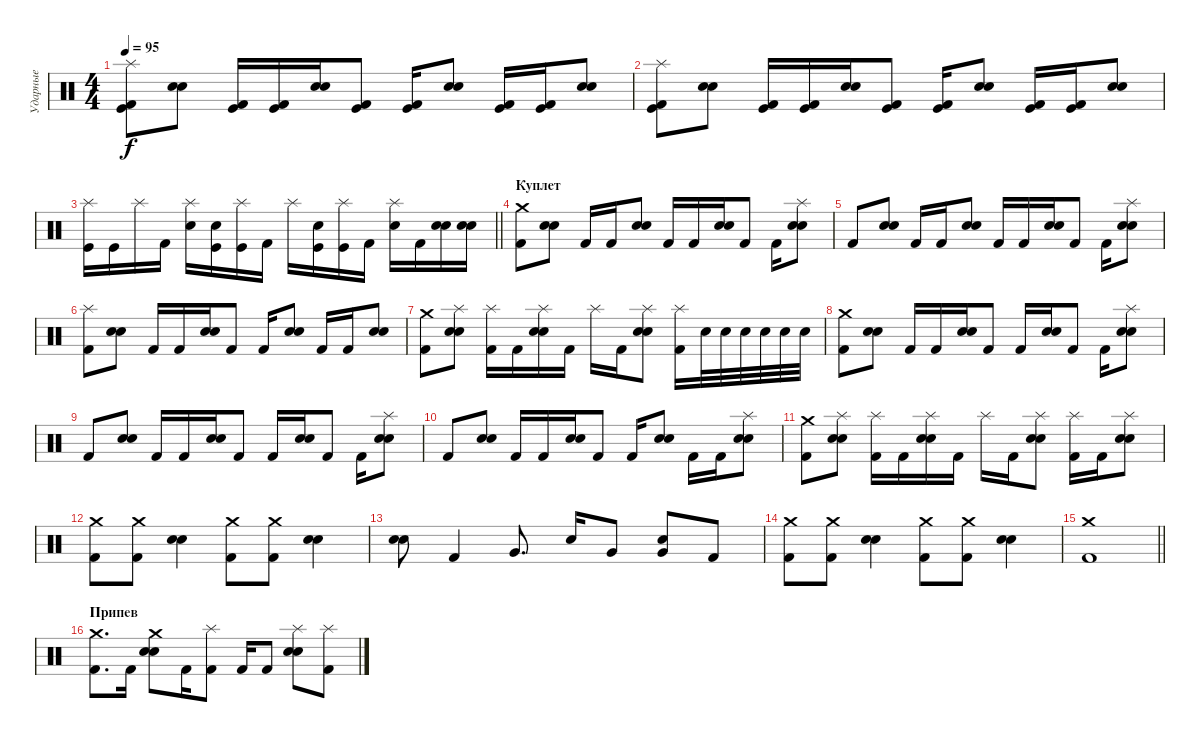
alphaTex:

\track ("Ударные" "Ударные") {instrument percussion}
\staff {score}
\articulation defaults
\ts (4 4)
\tempo 95
\clef neutral
\ks c
("Splash (hit)" "Kick (hit)" "Kick (hit) 2").8{dy f} ("Electric Snare (hit)" "Snare (hit) 2").8 ("Kick (hit)" "Kick (hit) 2").16 ("Kick (hit)" "Kick (hit) 2").16 ("Electric Snare (hit)" "Snare (hit) 2").16 ("Kick (hit)" "Kick (hit) 2").8 ("Kick (hit)" "Kick (hit) 2").16 ("Electric Snare (hit)" "Snare (hit) 2").8 ("Kick (hit)" "Kick (hit) 2").16 ("Kick (hit)" "Kick (hit) 2").16 ("Electric Snare (hit)" "Snare (hit) 2").8 |
("Splash (hit)" "Kick (hit)" "Kick (hit) 2").8 ("Electric Snare (hit)" "Snare (hit) 2").8 ("Kick (hit)" "Kick (hit) 2").16 ("Kick (hit)" "Kick (hit) 2").16 ("Electric Snare (hit)" "Snare (hit) 2").16 ("Kick (hit)" "Kick (hit) 2").8 ("Kick (hit)" "Kick (hit) 2").16 ("Electric Snare (hit)" "Snare (hit) 2").8 ("Kick (hit)" "Kick (hit) 2").16 ("Kick (hit)" "Kick (hit) 2").16 ("Electric Snare (hit)" "Snare (hit) 2").8 |
\barLineRight lightlight
("Splash (hit)" "Kick (hit)").16 "Kick (hit)".16 "Splash (hit)".16 "Kick (hit) 2".16 ("Splash (hit)" "Electric Snare (hit)").16 ("Electric Snare (hit)" "Kick (hit)").16 ("Splash (hit)" "Kick (hit)").16 "Kick (hit) 2".16 "Splash (hit)".16 ("Electric Snare (hit)" "Kick (hit)").16 ("Splash (hit)" "Kick (hit)").16 "Kick (hit) 2".16 ("Splash (hit)" "Electric Snare (hit)").16 "Kick (hit) 2".16 ("Electric Snare (hit)" "Snare (hit) 2").16 ("Electric Snare (hit)" "Snare (hit) 2").16 |
\section ("" "Куплет")
("Crash medium (hit)" "Kick (hit) 2").8 ("Electric Snare (hit)" "Snare (hit) 2").8 "Kick (hit) 2".16 "Kick (hit) 2".16 ("Electric Snare (hit)" "Snare (hit) 2").8 "Kick (hit) 2".16 "Kick (hit) 2".16 ("Electric Snare (hit)" "Snare (hit) 2").16 "Kick (hit) 2".8 "Kick (hit) 2".16 ("Splash (hit)" "Electric Snare (hit)" "Snare (hit) 2").8 |
"Kick (hit) 2".8 ("Electric Snare (hit)" "Snare (hit) 2").8 "Kick (hit) 2".16 "Kick (hit) 2".16 ("Electric Snare (hit)" "Snare (hit) 2").8 "Kick (hit) 2".16 "Kick (hit) 2".16 ("Electric Snare (hit)" "Snare (hit) 2").16 "Kick (hit) 2".8 "Kick (hit) 2".16 ("Splash (hit)" "Electric Snare (hit)" "Snare (hit) 2").8 |
("Splash (hit)" "Kick (hit) 2").8 ("Electric Snare (hit)" "Snare (hit) 2").8 "Kick (hit) 2".16 "Kick (hit) 2".16 ("Electric Snare (hit)" "Snare (hit) 2").16 "Kick (hit) 2".8 "Kick (hit) 2".16 ("Electric Snare (hit)" "Snare (hit) 2").8 "Kick (hit) 2".16 "Kick (hit) 2".16 ("Electric Snare (hit)" "Snare (hit) 2").8 |
("Crash medium (hit)" "Kick (hit) 2").8 ("Splash (hit)" "Electric Snare (hit)" "Snare (hit) 2").8 ("Splash (hit)" "Kick (hit) 2").16 "Kick (hit) 2".16 ("Splash (hit)" "Electric Snare (hit)" "Snare (hit) 2").16 "Kick (hit) 2".16 "Splash (hit)".16 "Kick (hit) 2".16 ("Splash (hit)" "Electric Snare (hit)" "Snare (hit) 2").8 ("Splash (hit)" "Kick (hit) 2").16 "Electric Snare (hit)".32 "Electric Snare (hit)".32 "Electric Snare (hit)".32 "Electric Snare (hit)".32 "Electric Snare (hit)".32 "Electric Snare (hit)".32 |
("Crash medium (hit)" "Kick (hit) 2").8 ("Electric Snare (hit)" "Snare (hit) 2").8 "Kick (hit) 2".16 "Kick (hit) 2".16 ("Electric Snare (hit)" "Snare (hit) 2").16 "Kick (hit) 2".8 "Kick (hit) 2".16 ("Electric Snare (hit)" "Snare (hit) 2").16 "Kick (hit) 2".8 "Kick (hit) 2".16 ("Splash (hit)" "Electric Snare (hit)" "Snare (hit) 2").8 |
"Kick (hit) 2".8 ("Electric Snare (hit)" "Snare (hit) 2").8 "Kick (hit) 2".16 "Kick (hit) 2".16 ("Electric Snare (hit)" "Snare (hit) 2").16 "Kick (hit) 2".8 "Kick (hit) 2".16 ("Electric Snare (hit)" "Snare (hit) 2").16 "Kick (hit) 2".8 "Kick (hit) 2".16 ("Splash (hit)" "Electric Snare (hit)" "Snare (hit) 2").8 |
"Kick (hit) 2".8 ("Electric Snare (hit)" "Snare (hit) 2").8 "Kick (hit) 2".16 "Kick (hit) 2".16 ("Electric Snare (hit)" "Snare (hit) 2").16 "Kick (hit) 2".8 "Kick (hit) 2".16 ("Electric Snare (hit)" "Snare (hit) 2").8 "Kick (hit) 2".16 "Kick (hit) 2".16 ("Splash (hit)" "Electric Snare (hit)" "Snare (hit) 2").8 |
("Crash medium (hit)" "Kick (hit) 2").8 ("Splash (hit)" "Electric Snare (hit)" "Snare (hit) 2").8 ("Splash (hit)" "Kick (hit) 2").16 "Kick (hit) 2".16 ("Splash (hit)" "Electric Snare (hit)" "Snare (hit) 2").16 "Kick (hit) 2".16 "Splash (hit)".16 "Kick (hit) 2".16 ("Splash (hit)" "Electric Snare (hit)" "Snare (hit) 2").8 ("Splash (hit)" "Kick (hit) 2").16 "Kick (hit) 2".16 ("Splash (hit)" "Electric Snare (hit)" "Snare (hit) 2").8 |
("Crash medium (hit)" "Kick (hit) 2").8 ("Crash medium (hit)" "Kick (hit) 2").8 ("Electric Snare (hit)" "Snare (hit) 2").4 ("Crash medium (hit)" "Kick (hit) 2").8 ("Crash medium (hit)" "Kick (hit) 2").8 ("Electric Snare (hit)" "Snare (hit) 2").4 |
("Electric Snare (hit)" "Snare (hit) 2").8 "Kick (hit) 2".4 "Very Low Tom (hit)".8{d} "Electric Snare (hit)".16 "Very Low Tom (hit)".8 ("Very Low Tom (hit)" "Electric Snare (hit)").8 "Kick (hit) 2".8 |
("Crash medium (hit)" "Kick (hit) 2").8 ("Crash medium (hit)" "Kick (hit) 2").8 ("Electric Snare (hit)" "Snare (hit) 2").4 ("Crash medium (hit)" "Kick (hit) 2").8 ("Crash medium (hit)" "Kick (hit) 2").8 ("Electric Snare (hit)" "Snare (hit) 2").4 |
\barLineRight lightlight
("Crash medium (hit)" "Kick (hit) 2").1 |
\section ("" "Припев")
("Crash medium (hit)" "Kick (hit) 2").8{d} "Kick (hit) 2".16 ("Crash medium (hit)" "Electric Snare (hit)" "Snare (hit) 2").8 "Kick (hit) 2".16 ("Splash (hit)" "Kick (hit) 2").8 "Kick (hit) 2".16 "Kick (hit) 2".8 ("Splash (hit)" "Electric Snare (hit)" "Snare (hit) 2").8 ("Splash (hit)" "Kick (hit) 2").8
